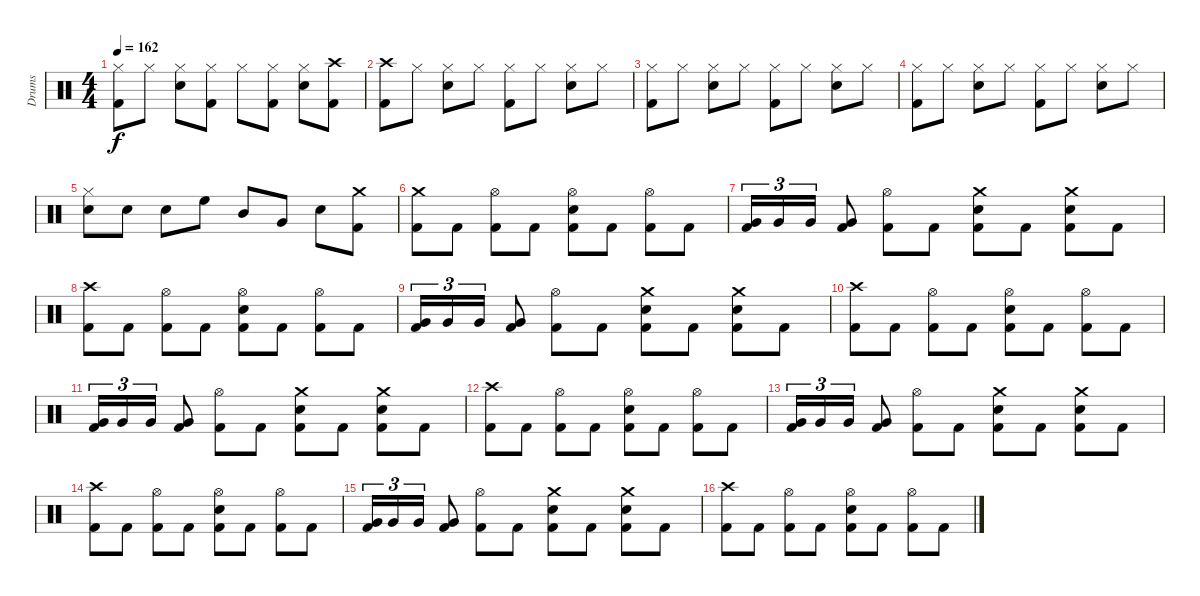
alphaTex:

\track ("Drums" "Drums") {instrument percussion}
\staff {score}
\articulation defaults
\ts (4 4)
\tempo 162
\clef neutral
\ks c
("Hi-Hat (closed)" "Kick (hit) 2").8{dy f} "Hi-Hat (closed)".8 ("Hi-Hat (closed)" "Electric Snare (hit)").8 ("Hi-Hat (closed)" "Kick (hit) 2").8 "Hi-Hat (closed)".8 ("Hi-Hat (closed)" "Kick (hit) 2").8 ("Hi-Hat (closed)" "Electric Snare (hit)").8 ("Crash high (hit)" "Kick (hit) 2").8 |
("Crash high (hit)" "Kick (hit) 2").8 "Hi-Hat (closed)".8 ("Hi-Hat (closed)" "Electric Snare (hit)").8 "Hi-Hat (closed)".8 ("Hi-Hat (closed)" "Kick (hit) 2").8 "Hi-Hat (closed)".8 ("Hi-Hat (closed)" "Electric Snare (hit)").8 "Hi-Hat (closed)".8 |
("Hi-Hat (closed)" "Kick (hit) 2").8 "Hi-Hat (closed)".8 ("Hi-Hat (closed)" "Electric Snare (hit)").8 "Hi-Hat (closed)".8 ("Hi-Hat (closed)" "Kick (hit) 2").8 "Hi-Hat (closed)".8 ("Hi-Hat (closed)" "Electric Snare (hit)").8 "Hi-Hat (closed)".8 |
("Hi-Hat (closed)" "Kick (hit) 2").8 "Hi-Hat (closed)".8 ("Hi-Hat (closed)" "Electric Snare (hit)").8 "Hi-Hat (closed)".8 ("Hi-Hat (closed)" "Kick (hit) 2").8 "Hi-Hat (closed)".8 ("Hi-Hat (closed)" "Electric Snare (hit)").8 "Hi-Hat (closed)".8 |
("Hi-Hat (closed)" "Electric Snare (hit)").8 "Electric Snare (hit)".8 "Electric Snare (hit)".8 "High Floor Tom (hit)".8 "Mid Tom (hit)".8 "Very Low Tom (hit)".8 "Electric Snare (hit)".8 ("Crash medium (hit)" "Kick (hit) 2").8 |
("Crash medium (hit)" "Kick (hit) 2").8 "Kick (hit) 2".8 ("Hi-Hat (open)" "Kick (hit) 2").8 "Kick (hit) 2".8 ("Hi-Hat (open)" "Electric Snare (hit)" "Kick (hit) 2").8 "Kick (hit) 2".8 ("Hi-Hat (open)" "Kick (hit) 2").8 "Kick (hit) 2".8 |
("Very Low Tom (hit)" "Kick (hit) 2").16{tu (3 2)} "Very Low Tom (hit)".16{tu (3 2)} "Very Low Tom (hit)".16{tu (3 2)} ("Very Low Tom (hit)" "Kick (hit) 2").8 ("Hi-Hat (open)" "Kick (hit) 2").8 "Kick (hit) 2".8 ("Crash medium (hit)" "Electric Snare (hit)" "Kick (hit) 2").8 "Kick (hit) 2".8 ("Crash medium (hit)" "Electric Snare (hit)" "Kick (hit) 2").8 "Kick (hit) 2".8 |
("Crash high (hit)" "Kick (hit) 2").8 "Kick (hit) 2".8 ("Hi-Hat (open)" "Kick (hit) 2").8 "Kick (hit) 2".8 ("Hi-Hat (open)" "Electric Snare (hit)" "Kick (hit) 2").8 "Kick (hit) 2".8 ("Hi-Hat (open)" "Kick (hit) 2").8 "Kick (hit) 2".8 |
("Very Low Tom (hit)" "Kick (hit) 2").16{tu (3 2)} "Very Low Tom (hit)".16{tu (3 2)} "Very Low Tom (hit)".16{tu (3 2)} ("Very Low Tom (hit)" "Kick (hit) 2").8 ("Hi-Hat (open)" "Kick (hit) 2").8 "Kick (hit) 2".8 ("Crash medium (hit)" "Electric Snare (hit)" "Kick (hit) 2").8 "Kick (hit) 2".8 ("Crash medium (hit)" "Electric Snare (hit)" "Kick (hit) 2").8 "Kick (hit) 2".8 |
("Crash high (hit)" "Kick (hit) 2").8 "Kick (hit) 2".8 ("Hi-Hat (open)" "Kick (hit) 2").8 "Kick (hit) 2".8 ("Hi-Hat (open)" "Electric Snare (hit)" "Kick (hit) 2").8 "Kick (hit) 2".8 ("Hi-Hat (open)" "Kick (hit) 2").8 "Kick (hit) 2".8 |
("Very Low Tom (hit)" "Kick (hit) 2").16{tu (3 2)} "Very Low Tom (hit)".16{tu (3 2)} "Very Low Tom (hit)".16{tu (3 2)} ("Very Low Tom (hit)" "Kick (hit) 2").8 ("Hi-Hat (open)" "Kick (hit) 2").8 "Kick (hit) 2".8 ("Crash medium (hit)" "Electric Snare (hit)" "Kick (hit) 2").8 "Kick (hit) 2".8 ("Crash medium (hit)" "Electric Snare (hit)" "Kick (hit) 2").8 "Kick (hit) 2".8 |
("Crash high (hit)" "Kick (hit) 2").8 "Kick (hit) 2".8 ("Hi-Hat (open)" "Kick (hit) 2").8 "Kick (hit) 2".8 ("Hi-Hat (open)" "Electric Snare (hit)" "Kick (hit) 2").8 "Kick (hit) 2".8 ("Hi-Hat (open)" "Kick (hit) 2").8 "Kick (hit) 2".8 |
("Very Low Tom (hit)" "Kick (hit) 2").16{tu (3 2)} "Very Low Tom (hit)".16{tu (3 2)} "Very Low Tom (hit)".16{tu (3 2)} ("Very Low Tom (hit)" "Kick (hit) 2").8 ("Hi-Hat (open)" "Kick (hit) 2").8 "Kick (hit) 2".8 ("Crash medium (hit)" "Electric Snare (hit)" "Kick (hit) 2").8 "Kick (hit) 2".8 ("Crash medium (hit)" "Electric Snare (hit)" "Kick (hit) 2").8 "Kick (hit) 2".8 |
("Crash high (hit)" "Kick (hit) 2").8 "Kick (hit) 2".8 ("Hi-Hat (open)" "Kick (hit) 2").8 "Kick (hit) 2".8 ("Hi-Hat (open)" "Electric Snare (hit)" "Kick (hit) 2").8 "Kick (hit) 2".8 ("Hi-Hat (open)" "Kick (hit) 2").8 "Kick (hit) 2".8 |
("Very Low Tom (hit)" "Kick (hit) 2").16{tu (3 2)} "Very Low Tom (hit)".16{tu (3 2)} "Very Low Tom (hit)".16{tu (3 2)} ("Very Low Tom (hit)" "Kick (hit) 2").8 ("Hi-Hat (open)" "Kick (hit) 2").8 "Kick (hit) 2".8 ("Crash medium (hit)" "Electric Snare (hit)" "Kick (hit) 2").8 "Kick (hit) 2".8 ("Crash medium (hit)" "Electric Snare (hit)" "Kick (hit) 2").8 "Kick (hit) 2".8 |
("Crash high (hit)" "Kick (hit) 2").8 "Kick (hit) 2".8 ("Hi-Hat (open)" "Kick (hit) 2").8 "Kick (hit) 2".8 ("Hi-Hat (open)" "Electric Snare (hit)" "Kick (hit) 2").8 "Kick (hit) 2".8 ("Hi-Hat (open)" "Kick (hit) 2").8 "Kick (hit) 2".8
